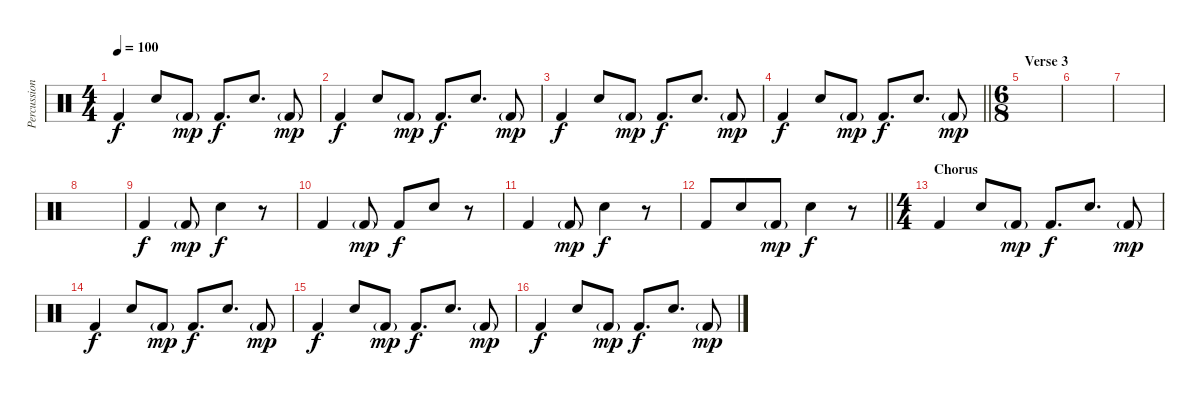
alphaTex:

\track ("Percussion" "Percussion") {instrument percussion}
\staff {score}
\articulation defaults
\ts (4 4)
\tempo 100
\clef neutral
\ks c "Kick (hit) 2".4{dy f} "Snare (hit) 2".8 "Kick (hit) 2"{g}.8{dy mp} "Kick (hit) 2".8{d dy f} "Snare (hit) 2".8{d} "Kick (hit) 2"{g}.8{dy mp}
|
"Kick (hit) 2".4{dy f} "Snare (hit) 2".8 "Kick (hit) 2"{g}.8{dy mp} "Kick (hit) 2".8{d dy f} "Snare (hit) 2".8{d} "Kick (hit) 2"{g}.8{dy mp} |
"Kick (hit) 2".4{dy f} "Snare (hit) 2".8 "Kick (hit) 2"{g}.8{dy mp} "Kick (hit) 2".8{d dy f} "Snare (hit) 2".8{d} "Kick (hit) 2"{g}.8{dy mp} |
\barLineRight lightlight "Kick (hit) 2".4{dy f} "Snare (hit) 2".8 "Kick (hit) 2"{g}.8{dy mp} "Kick (hit) 2".8{d dy f} "Snare (hit) 2".8{d} "Kick (hit) 2"{g}.8{dy mp}
|
\ts (6 8)
\section ("" "Verse 3")
|
|
|
|
"Kick (hit) 2".4{dy f} "Kick (hit) 2"{g}.8{dy mp} "Snare (hit) 2".4{dy f} r.8 |
"Kick (hit) 2".4 "Kick (hit) 2"{g}.8{dy mp} "Kick (hit) 2".8{dy f} "Snare (hit) 2".8 r.8 |
"Kick (hit) 2".4 "Kick (hit) 2"{g}.8{dy mp} "Snare (hit) 2".4{dy f} r.8 |
\barLineRight lightlight "Kick (hit) 2".8 "Snare (hit) 2".8 "Kick (hit) 2"{g}.8{dy mp} "Snare (hit) 2".4{dy f}
r.8 |
\ts (4 4)
\section ("" "Chorus")
"Kick (hit) 2".4 "Snare (hit) 2".8 "Kick (hit) 2"{g}.8{dy mp} "Kick (hit) 2".8{d dy f} "Snare (hit) 2".8{d} "Kick (hit) 2"{g}.8{dy mp} |
"Kick (hit) 2".4{dy f} "Snare (hit) 2".8 "Kick (hit) 2"{g}.8{dy mp} "Kick (hit) 2".8{d dy f} "Snare (hit) 2".8{d} "Kick (hit) 2"{g}.8{dy mp} |
"Kick (hit) 2".4{dy f} "Snare (hit) 2".8 "Kick (hit) 2"{g}.8{dy mp} "Kick (hit) 2".8{d dy f} "Snare (hit) 2".8{d} "Kick (hit) 2"{g}.8{dy mp} |
"Kick (hit) 2".4{dy f} "Snare (hit) 2".8 "Kick (hit) 2"{g}.8{dy mp} "Kick (hit) 2".8{d dy f} "Snare (hit) 2".8{d} "Kick (hit) 2"{g}.8{dy mp}
